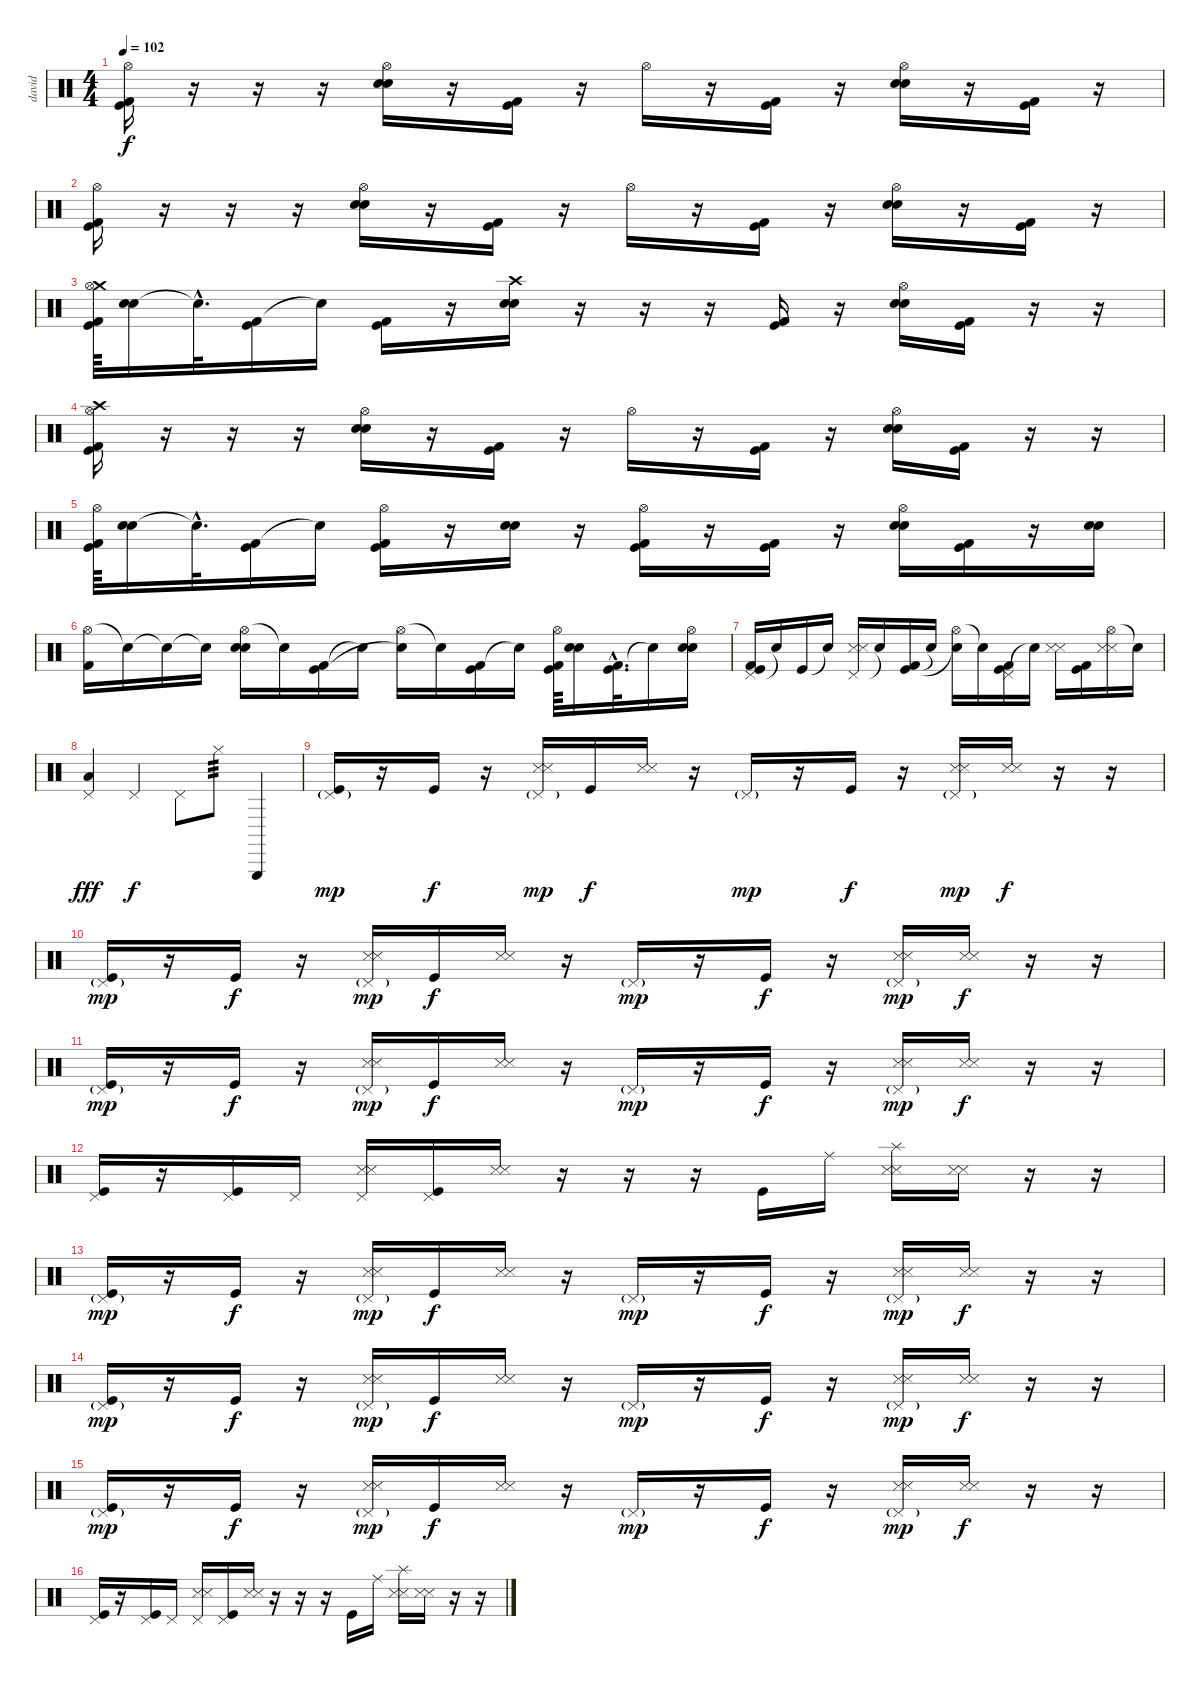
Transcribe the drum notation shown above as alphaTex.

\track ("david" "david") {instrument percussion}
\staff {score}
\articulation defaults
\ts (4 4)
\tempo 102
\clef neutral
\ks c
("Hi-Hat (open)" "Kick (hit) 2" "Kick (hit)").16{dy f} r.16 r.16 r.16 ("Hi-Hat (open)" "Electric Snare (hit)" "Snare (hit) 2").16 r.16 ("Kick (hit) 2" "Kick (hit)").16 r.16 "Hi-Hat (open)".16 r.16 ("Kick (hit) 2" "Kick (hit)").16 r.16 ("Hi-Hat (open)" "Electric Snare (hit)" "Snare (hit) 2").16 r.16 ("Kick (hit) 2" "Kick (hit)").16 r.16 |
("Hi-Hat (open)" "Kick (hit) 2" "Kick (hit)").16 r.16 r.16 r.16 ("Hi-Hat (open)" "Electric Snare (hit)" "Snare (hit) 2").16 r.16 ("Kick (hit) 2" "Kick (hit)").16 r.16 "Hi-Hat (open)".16 r.16 ("Kick (hit) 2" "Kick (hit)").16 r.16 ("Hi-Hat (open)" "Electric Snare (hit)" "Snare (hit) 2").16 r.16 ("Kick (hit) 2" "Kick (hit)").16 r.16 |
("Crash medium (hit)" "Hi-Hat (open)" "Kick (hit) 2" "Kick (hit)").64 ("Electric Snare (hit)" "Snare (hit) 2").16 "Snare (hit)"{hac t}.32{d} ("Kick (hit) 2" "Kick (hit)").16 "Snare (hit)"{t}.16 ("Kick (hit) 2" "Kick (hit)").16 r.16 ("Crash high (hit)" "Electric Snare (hit)" "Snare (hit) 2").16 r.16 r.16 r.16 ("Kick (hit) 2" "Kick (hit)").16 r.16 ("Hi-Hat (open)" "Electric Snare (hit)" "Snare (hit) 2").16 ("Kick (hit) 2" "Kick (hit)").16 r.16 r.16 |
("Hi-Hat (open)" "Crash high (hit)" "Kick (hit) 2" "Kick (hit)").16 r.16 r.16 r.16 ("Hi-Hat (open)" "Electric Snare (hit)" "Snare (hit) 2").16 r.16 ("Kick (hit) 2" "Kick (hit)").16 r.16 "Hi-Hat (open)".16 r.16 ("Kick (hit) 2" "Kick (hit)").16 r.16 ("Hi-Hat (open)" "Electric Snare (hit)" "Snare (hit) 2").16 ("Kick (hit) 2" "Kick (hit)").16 r.16 r.16 |
("Hi-Hat (open)" "Kick (hit) 2" "Kick (hit)").64 ("Electric Snare (hit)" "Snare (hit) 2").16 "Snare (hit)"{hac t}.32{d} ("Kick (hit) 2" "Kick (hit)").16 "Snare (hit)"{t}.16 ("Hi-Hat (open)" "Kick (hit) 2" "Kick (hit)").16 r.16 ("Electric Snare (hit)" "Snare (hit) 2").16 r.16 ("Hi-Hat (open)" "Kick (hit) 2" "Kick (hit)").16 r.16 ("Kick (hit) 2" "Kick (hit)").16 r.16 ("Hi-Hat (open)" "Electric Snare (hit)" "Snare (hit) 2").16 ("Kick (hit) 2" "Kick (hit)").16 r.16 ("Electric Snare (hit)" "Snare (hit) 2").16 |
("Hi-Hat (open)" "Kick (hit) 2").16 "Snare (hit)"{t}.16 "Snare (hit)"{t}.16 "Snare (hit)"{t}.16 ("Hi-Hat (open)" "Electric Snare (hit)" "Snare (hit) 2").16 "Snare (hit)"{t}.16 ("Kick (hit) 2" "Kick (hit)").16 "Snare (hit)"{t}.16 ("Hi-Hat (open)" "Snare (hit)"{t}).16 "Snare (hit)"{t}.16 ("Kick (hit) 2" "Kick (hit)").16 "Snare (hit)"{t}.16 ("Hi-Hat (open)" "Kick (hit) 2" "Kick (hit)").64 ("Electric Snare (hit)" "Snare (hit) 2").16 ("Kick (hit) 2"{hac} "Kick (hit)"{hac}).32{d} "Snare (hit)"{t}.16 ("Hi-Hat (open)" "Electric Snare (hit)" "Snare (hit) 2").16 |
("Pedal Hi-Hat (hit)" "Kick (hit) 2" "Kick (hit)").16 "Snare (hit)"{t}.16 "Kick (hit)".16 "Snare (hit)"{t}.16 ("Pedal Hi-Hat (hit)" "Metronome (hit)" "Snare (side stick) 3").16 "Snare (hit)"{t}.16 ("Kick (hit) 2" "Kick (hit)").16 "Snare (hit)"{t}.16 ("Hi-Hat (open)" "Snare (hit)"{t}).16 "Snare (hit)"{t}.16 ("Pedal Hi-Hat (hit)" "Kick (hit) 2" "Kick (hit)").16 "Snare (hit)"{t}.16 ("Metronome (hit)" "Snare (side stick) 3").16 ("Kick (hit) 2" "Kick (hit)").16 ("Hi-Hat (open)" "Metronome (hit)" "Snare (side stick) 3").16 "Snare (hit)"{t}.16 |
("Pedal Hi-Hat (hit)" "Low Floor Tom (hit)").4{dy fff} "Pedal Hi-Hat (hit)".4{dy f} "Pedal Hi-Hat (hit)".8 "Hi-Hat (closed)".8{tp 3} "Triangle (hit)".4 |
("Pedal Hi-Hat (hit)"{g} "Kick (hit)").16{dy mp} r.16 "Kick (hit)".16{dy f} r.16 ("Pedal Hi-Hat (hit)"{g} "Metronome (hit)" "Snare (side stick) 3").16{dy mp} "Kick (hit)".16{dy f} ("Metronome (hit)" "Snare (side stick) 3").16 r.16 "Pedal Hi-Hat (hit)"{g}.16{dy mp} r.16 "Kick (hit)".16{dy f} r.16 ("Pedal Hi-Hat (hit)"{g} "Metronome (hit)" "Snare (side stick) 3").16{dy mp} ("Metronome (hit)" "Snare (side stick) 3").16{dy f} r.16 r.16 |
("Pedal Hi-Hat (hit)"{g} "Kick (hit)").16{dy mp} r.16 "Kick (hit)".16{dy f} r.16 ("Pedal Hi-Hat (hit)"{g} "Metronome (hit)" "Snare (side stick) 3").16{dy mp} "Kick (hit)".16{dy f} ("Metronome (hit)" "Snare (side stick) 3").16 r.16 "Pedal Hi-Hat (hit)"{g}.16{dy mp} r.16 "Kick (hit)".16{dy f} r.16 ("Pedal Hi-Hat (hit)"{g} "Metronome (hit)" "Snare (side stick) 3").16{dy mp} ("Metronome (hit)" "Snare (side stick) 3").16{dy f} r.16 r.16 |
("Pedal Hi-Hat (hit)"{g} "Kick (hit)").16{dy mp} r.16 "Kick (hit)".16{dy f} r.16 ("Pedal Hi-Hat (hit)"{g} "Metronome (hit)" "Snare (side stick) 3").16{dy mp} "Kick (hit)".16{dy f} ("Metronome (hit)" "Snare (side stick) 3").16 r.16 "Pedal Hi-Hat (hit)"{g}.16{dy mp} r.16 "Kick (hit)".16{dy f} r.16 ("Pedal Hi-Hat (hit)"{g} "Metronome (hit)" "Snare (side stick) 3").16{dy mp} ("Metronome (hit)" "Snare (side stick) 3").16{dy f} r.16 r.16 |
("Pedal Hi-Hat (hit)" "Kick (hit)").16 r.16 ("Pedal Hi-Hat (hit)" "Kick (hit)").16 "Pedal Hi-Hat (hit)".16 ("Pedal Hi-Hat (hit)" "Metronome (hit)" "Snare (side stick) 3").16 ("Pedal Hi-Hat (hit)" "Kick (hit)").16 ("Metronome (hit)" "Snare (side stick) 3").16 r.16 r.16 r.16 "Kick (hit)".16 "Ride (middle)".16 ("Splash (hit)" "Metronome (hit)" "Snare (side stick) 3").16 ("Metronome (hit)" "Snare (side stick) 3").16 r.16 r.16 |
("Pedal Hi-Hat (hit)"{g} "Kick (hit)").16{dy mp} r.16 "Kick (hit)".16{dy f} r.16 ("Pedal Hi-Hat (hit)"{g} "Metronome (hit)" "Snare (side stick) 3").16{dy mp} "Kick (hit)".16{dy f} ("Metronome (hit)" "Snare (side stick) 3").16 r.16 "Pedal Hi-Hat (hit)"{g}.16{dy mp} r.16 "Kick (hit)".16{dy f} r.16 ("Pedal Hi-Hat (hit)"{g} "Metronome (hit)" "Snare (side stick) 3").16{dy mp} ("Metronome (hit)" "Snare (side stick) 3").16{dy f} r.16 r.16 |
("Pedal Hi-Hat (hit)"{g} "Kick (hit)").16{dy mp} r.16 "Kick (hit)".16{dy f} r.16 ("Pedal Hi-Hat (hit)"{g} "Metronome (hit)" "Snare (side stick) 3").16{dy mp} "Kick (hit)".16{dy f} ("Metronome (hit)" "Snare (side stick) 3").16 r.16 "Pedal Hi-Hat (hit)"{g}.16{dy mp} r.16 "Kick (hit)".16{dy f} r.16 ("Pedal Hi-Hat (hit)"{g} "Metronome (hit)" "Snare (side stick) 3").16{dy mp} ("Metronome (hit)" "Snare (side stick) 3").16{dy f} r.16 r.16 |
("Pedal Hi-Hat (hit)"{g} "Kick (hit)").16{dy mp} r.16 "Kick (hit)".16{dy f} r.16 ("Pedal Hi-Hat (hit)"{g} "Metronome (hit)" "Snare (side stick) 3").16{dy mp} "Kick (hit)".16{dy f} ("Metronome (hit)" "Snare (side stick) 3").16 r.16 "Pedal Hi-Hat (hit)"{g}.16{dy mp} r.16 "Kick (hit)".16{dy f} r.16 ("Pedal Hi-Hat (hit)"{g} "Metronome (hit)" "Snare (side stick) 3").16{dy mp} ("Metronome (hit)" "Snare (side stick) 3").16{dy f} r.16 r.16 |
("Pedal Hi-Hat (hit)" "Kick (hit)").16 r.16 ("Pedal Hi-Hat (hit)" "Kick (hit)").16 "Pedal Hi-Hat (hit)".16 ("Pedal Hi-Hat (hit)" "Metronome (hit)" "Snare (side stick) 3").16 ("Pedal Hi-Hat (hit)" "Kick (hit)").16 ("Metronome (hit)" "Snare (side stick) 3").16 r.16 r.16 r.16 "Kick (hit)".16 "Ride (middle)".16 ("Splash (hit)" "Metronome (hit)" "Snare (side stick) 3").16 ("Metronome (hit)" "Snare (side stick) 3").16 r.16 r.16
